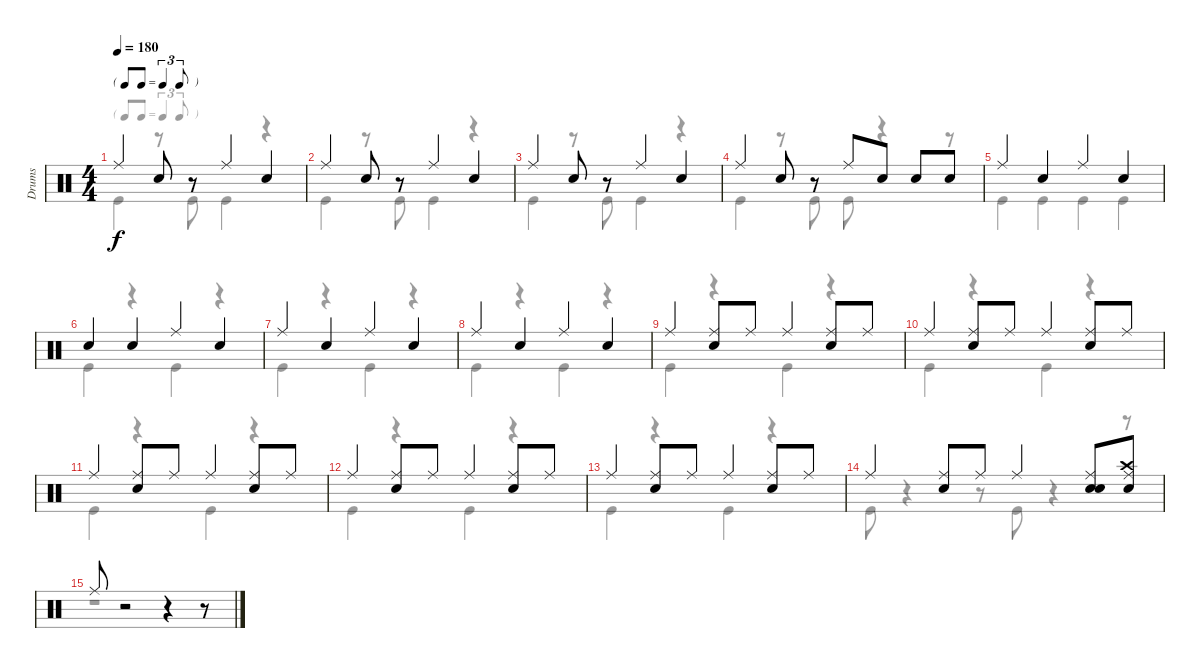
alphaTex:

\track ("Drums" "Drums") {instrument percussion}
\staff {score}
\articulation defaults
\voice
\ts (4 4)
\tf triplet8th
\tempo 180
\clef neutral
\ks c "Ride (middle)".4{dy f} "Snare (hit) 2".8
r.8 "Ride (middle)".4 "Snare (hit) 2".4 |
"Ride (middle)".4 "Snare (hit) 2".8 r.8 "Ride (middle)".4 "Snare (hit) 2".4 |
"Ride (middle)".4 "Snare (hit) 2".8 r.8 "Ride (middle)".4 "Snare (hit) 2".4 |
"Ride (middle)".4 "Snare (hit) 2".8 r.8 "Ride (middle)".8 "Snare (hit) 2".8 "Snare (hit) 2".8 "Snare (hit) 2".8 |
"Ride (middle)".4 "Snare (hit) 2".4 "Ride (middle)".4 "Snare (hit) 2".4 |
"Snare (hit) 2".4 "Snare (hit) 2".4 "Ride (middle)".4 "Snare (hit) 2".4 |
"Ride (middle)".4 "Snare (hit) 2".4 "Ride (middle)".4 "Snare (hit) 2".4 |
"Ride (middle)".4 "Snare (hit) 2".4 "Ride (middle)".4 "Snare (hit) 2".4 |
"Ride (middle)".4 ("Ride (middle)" "Snare (hit) 2").8 "Ride (middle)".8 "Ride (middle)".4 ("Ride (middle)" "Snare (hit) 2").8 "Ride (middle)".8 |
"Ride (middle)".4 ("Ride (middle)" "Snare (hit) 2").8 "Ride (middle)".8 "Ride (middle)".4 ("Ride (middle)" "Snare (hit) 2").8 "Ride (middle)".8 |
"Ride (middle)".4 ("Ride (middle)" "Snare (hit) 2").8 "Ride (middle)".8 "Ride (middle)".4 ("Ride (middle)" "Snare (hit) 2").8 "Ride (middle)".8 |
"Ride (middle)".4 ("Ride (middle)" "Snare (hit) 2").8 "Ride (middle)".8 "Ride (middle)".4 ("Ride (middle)" "Snare (hit) 2").8 "Ride (middle)".8 |
"Ride (middle)".4 ("Ride (middle)" "Snare (hit) 2").8 "Ride (middle)".8 "Ride (middle)".4 ("Ride (middle)" "Snare (hit) 2").8 "Ride (middle)".8 |
"Ride (middle)".4 ("Ride (middle)" "Snare (hit) 2").8 "Ride (middle)".8 "Ride (middle)".4 ("Snare (hit) 2" "Ride (middle)" "Snare (hit) 2").8 ("Ride (middle)" "Crash high (hit)" "Snare (hit) 2").8 |
"Ride (middle)".8 r.2 r.4 r.8
\voice
\clef neutral
\ottava regular
\simile none
\ks c "Kick (hit)".4{dy f}
r.8 "Kick (hit)".8 "Kick (hit)".4 r.4 |
"Kick (hit)".4 r.8 "Kick (hit)".8 "Kick (hit)".4 r.4 |
"Kick (hit)".4 r.8 "Kick (hit)".8 "Kick (hit)".4 r.4 |
"Kick (hit)".4 r.8 "Kick (hit)".8 "Kick (hit)".8 r.4 r.8 |
"Kick (hit)".4 "Kick (hit)".4 "Kick (hit)".4 "Kick (hit)".4 |
"Kick (hit)".4 r.4 "Kick (hit)".4 r.4 |
"Kick (hit)".4 r.4 "Kick (hit)".4 r.4 |
"Kick (hit)".4 r.4 "Kick (hit)".4 r.4 |
"Kick (hit)".4 r.4 "Kick (hit)".4 r.4 |
"Kick (hit)".4 r.4 "Kick (hit)".4 r.4 |
"Kick (hit)".4 r.4 "Kick (hit)".4 r.4 |
"Kick (hit)".4 r.4 "Kick (hit)".4 r.4 |
"Kick (hit)".4 r.4 "Kick (hit)".4 r.4 |
"Kick (hit)".8 r.4 r.8 "Kick (hit)".8 r.4 r.8 |
r.1
